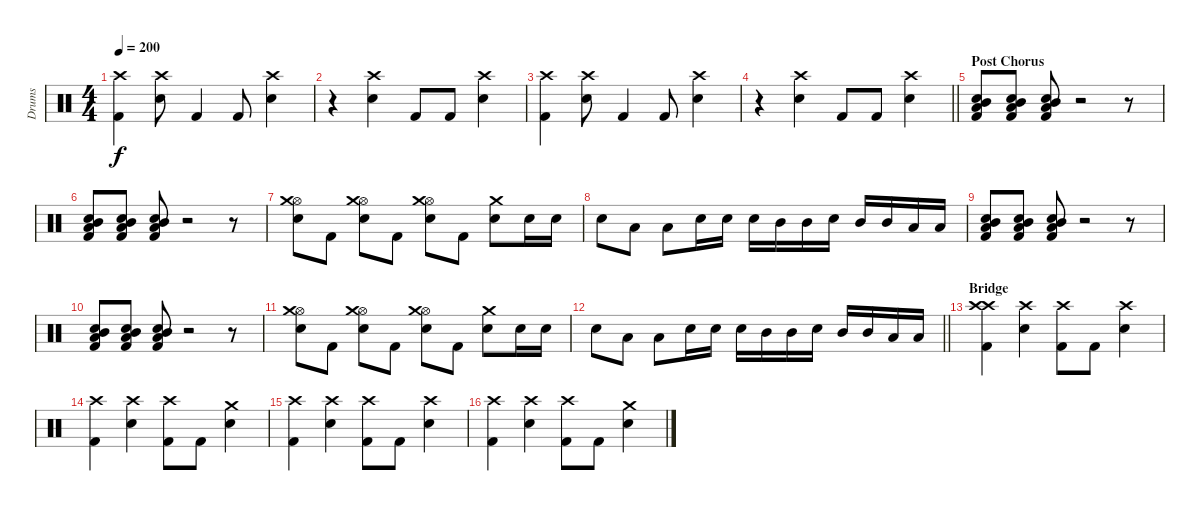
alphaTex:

\track ("Drums" "Drums") {instrument percussion}
\staff {score}
\articulation defaults
\ts (4 4)
\tempo 200
\clef neutral
\ks c
("Crash high (hit)" "Kick (hit) 2").4{dy f} ("Crash high (hit)" "Electric Snare (hit)").8 "Kick (hit) 2".4 "Kick (hit) 2".8 ("Crash high (hit)" "Electric Snare (hit)").4 |
r.4 ("Crash high (hit)" "Electric Snare (hit)").4 "Kick (hit) 2".8 "Kick (hit) 2".8 ("Crash high (hit)" "Electric Snare (hit)").4 |
("Crash high (hit)" "Kick (hit) 2").4 ("Crash high (hit)" "Electric Snare (hit)").8 "Kick (hit) 2".4 "Kick (hit) 2".8 ("Crash high (hit)" "Electric Snare (hit)").4 |
\barLineRight lightlight
r.4 ("Crash high (hit)" "Electric Snare (hit)").4 "Kick (hit) 2".8 "Kick (hit) 2".8 ("Crash high (hit)" "Electric Snare (hit)").4 |
\section ("" "Post Chorus")
("Low Floor Tom (hit)" "Mid Tom (hit)" "Snare (hit) 2" "Kick (hit) 2").8 ("Low Floor Tom (hit)" "Mid Tom (hit)" "Snare (hit) 2" "Kick (hit) 2").8 ("Low Floor Tom (hit)" "Mid Tom (hit)" "Snare (hit) 2" "Kick (hit) 2").8 r.2 r.8 |
("Low Floor Tom (hit)" "Mid Tom (hit)" "Snare (hit) 2" "Kick (hit) 2").8 ("Low Floor Tom (hit)" "Mid Tom (hit)" "Snare (hit) 2" "Kick (hit) 2").8 ("Low Floor Tom (hit)" "Mid Tom (hit)" "Snare (hit) 2" "Kick (hit) 2").8 r.2 r.8 |
("Hi-Hat (open)" "Electric Snare (hit)" "Crash medium (hit)").8 "Kick (hit) 2".8 ("Hi-Hat (open)" "Electric Snare (hit)" "Crash medium (hit)").8 "Kick (hit) 2".8 ("Hi-Hat (open)" "Electric Snare (hit)" "Crash medium (hit)").8 "Kick (hit) 2".8 ("Electric Snare (hit)" "Crash medium (hit)").8 "Electric Snare (hit)".16{volume 12} "Electric Snare (hit)".16 |
"Electric Snare (hit)".8 "Low Floor Tom (hit)".8 "Low Floor Tom (hit)".8 "Electric Snare (hit)".16 "Electric Snare (hit)".16 "Electric Snare (hit)".16 "Mid Tom (hit)".16 "Mid Tom (hit)".16 "Electric Snare (hit)".16 "Mid Tom (hit)".16 "Mid Tom (hit)".16 "Low Floor Tom (hit)".16 "Low Floor Tom (hit)".16 |
("Low Floor Tom (hit)" "Mid Tom (hit)" "Snare (hit) 2" "Kick (hit) 2").8{volume 8} ("Low Floor Tom (hit)" "Mid Tom (hit)" "Snare (hit) 2" "Kick (hit) 2").8 ("Low Floor Tom (hit)" "Mid Tom (hit)" "Snare (hit) 2" "Kick (hit) 2").8 r.2 r.8 |
("Low Floor Tom (hit)" "Mid Tom (hit)" "Snare (hit) 2" "Kick (hit) 2").8 ("Low Floor Tom (hit)" "Mid Tom (hit)" "Snare (hit) 2" "Kick (hit) 2").8 ("Low Floor Tom (hit)" "Mid Tom (hit)" "Snare (hit) 2" "Kick (hit) 2").8 r.2 r.8 |
("Hi-Hat (open)" "Electric Snare (hit)" "Crash medium (hit)").8 "Kick (hit) 2".8 ("Hi-Hat (open)" "Electric Snare (hit)" "Crash medium (hit)").8 "Kick (hit) 2".8 ("Hi-Hat (open)" "Electric Snare (hit)" "Crash medium (hit)").8 "Kick (hit) 2".8 ("Electric Snare (hit)" "Crash medium (hit)").8 "Electric Snare (hit)".16{volume 12} "Electric Snare (hit)".16 |
\barLineRight lightlight "Electric Snare (hit)".8 "Low Floor Tom (hit)".8 "Low Floor Tom (hit)".8 "Electric Snare (hit)".16 "Electric Snare (hit)".16 "Electric Snare (hit)".16 "Mid Tom (hit)".16 "Mid Tom (hit)".16 "Electric Snare (hit)".16 "Mid Tom (hit)".16 "Mid Tom (hit)".16 "Low Floor Tom (hit)".16 "Low Floor Tom (hit)".16
|
\section ("" "Bridge")
("Crash high (hit)" "Crash high (hit)" "Kick (hit) 2").4{volume 8} ("Crash high (hit)" "Electric Snare (hit)").4 ("Crash high (hit)" "Kick (hit) 2").8 "Kick (hit) 2".8 ("Crash high (hit)" "Electric Snare (hit)").4 |
("Crash high (hit)" "Kick (hit) 2").4 ("Crash high (hit)" "Electric Snare (hit)").4 ("Crash high (hit)" "Kick (hit) 2").8 "Kick (hit) 2".8 ("Crash medium (hit)" "Electric Snare (hit)").4 |
("Crash high (hit)" "Kick (hit) 2").4 ("Crash high (hit)" "Electric Snare (hit)").4 ("Crash high (hit)" "Kick (hit) 2").8 "Kick (hit) 2".8 ("Crash high (hit)" "Electric Snare (hit)").4 |
("Crash high (hit)" "Kick (hit) 2").4 ("Crash high (hit)" "Electric Snare (hit)").4 ("Crash high (hit)" "Kick (hit) 2").8 "Kick (hit) 2".8 ("Crash medium (hit)" "Electric Snare (hit)").4
